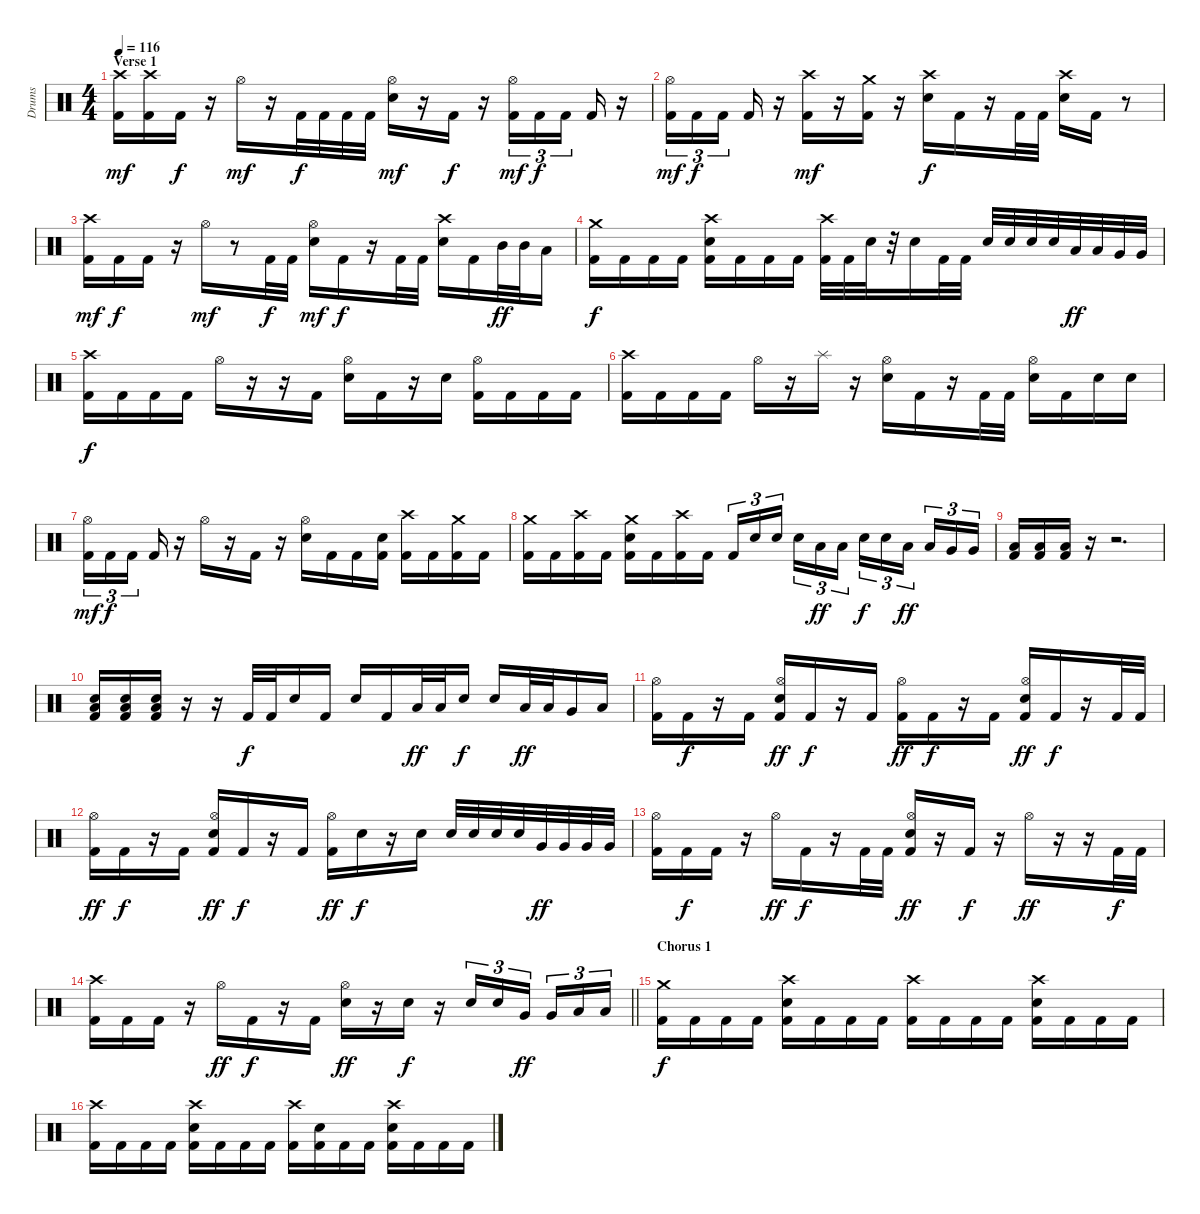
\track ("Drums" "Drums") {instrument percussion}
\staff {score}
\articulation defaults
\ts (4 4)
\section ("" "Verse 1")
\tempo 116
\clef neutral
\ks c
("Crash high (hit)" "Kick (hit) 2").16{dy mf} ("Crash high (hit)" "Kick (hit) 2").16 "Kick (hit) 2".16{dy f} r.16 "Hi-Hat (open)".16{dy mf} r.16 "Kick (hit) 2".32{dy f} "Kick (hit) 2".32 "Kick (hit) 2".32 "Kick (hit) 2".32 ("Hi-Hat (open)" "Snare (hit) 2").16{dy mf} r.16 "Kick (hit) 2".16{dy f} r.16 ("Hi-Hat (open)" "Kick (hit) 2").16{tu (3 2) dy mf} "Kick (hit) 2".16{tu (3 2) dy f} "Kick (hit) 2".16{tu (3 2)} "Kick (hit) 2".16 r.16 |
("Hi-Hat (open)" "Kick (hit) 2").16{tu (3 2) dy mf} "Kick (hit) 2".16{tu (3 2) dy f} "Kick (hit) 2".16{tu (3 2)} "Kick (hit) 2".16 r.16 ("Crash high (hit)" "Kick (hit) 2").16{dy mf} r.16 ("Crash medium (hit)" "Kick (hit) 2").16 r.16 ("Crash high (hit)" "Snare (hit) 2").16{dy f} "Kick (hit) 2".16 r.16 "Kick (hit) 2".32 "Kick (hit) 2".32 ("Crash high (hit)" "Snare (hit) 2").16 "Kick (hit) 2".16 r.8 |
("Crash high (hit)" "Kick (hit) 2").16{dy mf} "Kick (hit) 2".16{dy f} "Kick (hit) 2".16 r.16 "Hi-Hat (open)".16{dy mf} r.8 "Kick (hit) 2".32{dy f} "Kick (hit) 2".32 ("Hi-Hat (open)" "Snare (hit) 2").16{dy mf} "Kick (hit) 2".16{dy f} r.16 "Kick (hit) 2".32 "Kick (hit) 2".32 ("Crash high (hit)" "Snare (hit) 2").16 "Kick (hit) 2".16 "Mid Tom (hit)".32{dy ff} "Mid Tom (hit)".32 "Low Tom (hit)".16 |
("Crash medium (hit)" "Kick (hit) 2").16{dy f} "Kick (hit) 2".16 "Kick (hit) 2".16 "Kick (hit) 2".16 ("Crash high (hit)" "Snare (hit) 2" "Kick (hit) 2").16 "Kick (hit) 2".16 "Kick (hit) 2".16 "Kick (hit) 2".16 ("Crash high (hit)" "Kick (hit) 2").32 "Kick (hit) 2".32 "Snare (hit) 2".32 r.32 "Snare (hit) 2".16 "Kick (hit) 2".32 "Kick (hit) 2".32 "Snare (hit) 2".32 "Snare (hit) 2".32 "Snare (hit) 2".32 "Snare (hit) 2".32 "Low Tom (hit)".32{dy ff} "Low Tom (hit)".32 "Very Low Tom (hit)".32 "Very Low Tom (hit)".32 |
("Crash high (hit)" "Kick (hit) 2").16{dy f} "Kick (hit) 2".16 "Kick (hit) 2".16 "Kick (hit) 2".16 "Hi-Hat (open)".16 r.16 r.16 "Kick (hit) 2".16 ("Hi-Hat (open)" "Snare (hit) 2").16 "Kick (hit) 2".16 r.16 "Snare (hit) 2".16 ("Hi-Hat (open)" "Kick (hit) 2").16 "Kick (hit) 2".16 "Kick (hit) 2".16 "Kick (hit) 2".16 |
("Crash high (hit)" "Kick (hit) 2").16 "Kick (hit) 2".16 "Kick (hit) 2".16 "Kick (hit) 2".16 "Hi-Hat (open)".16 r.16 "Splash (hit)".16 r.16 ("Hi-Hat (open)" "Snare (hit) 2").16 "Kick (hit) 2".16 r.16 "Kick (hit) 2".32 "Kick (hit) 2".32 ("Hi-Hat (open)" "Snare (hit) 2").16 "Kick (hit) 2".16 "Snare (hit) 2".16 "Snare (hit) 2".16 |
("Hi-Hat (open)" "Kick (hit) 2").16{tu (3 2) dy mf} "Kick (hit) 2".16{tu (3 2) dy f} "Kick (hit) 2".16{tu (3 2)} "Kick (hit) 2".16 r.16 "Hi-Hat (open)".16 r.16 "Kick (hit) 2".16 r.16 ("Hi-Hat (open)" "Snare (hit) 2").16 "Kick (hit) 2".16 "Kick (hit) 2".16 ("Snare (hit) 2" "Kick (hit) 2").16 ("Crash high (hit)" "Kick (hit) 2").16 "Kick (hit) 2".16 ("Crash medium (hit)" "Kick (hit) 2").16 "Kick (hit) 2".16 |
("Crash medium (hit)" "Kick (hit) 2").16 "Kick (hit) 2".16 ("Crash high (hit)" "Kick (hit) 2").16 "Kick (hit) 2".16 ("Crash medium (hit)" "Snare (hit) 2" "Kick (hit) 2").16 "Kick (hit) 2".16 ("Crash high (hit)" "Kick (hit) 2").16 "Kick (hit) 2".16 "Kick (hit) 2".16{tu (3 2)} "Snare (hit) 2".16{tu (3 2)} "Snare (hit) 2".16{tu (3 2)} "Snare (hit) 2".16{tu (3 2)} "Low Tom (hit)".16{tu (3 2) dy ff} "Low Tom (hit)".16{tu (3 2)} "Snare (hit) 2".16{tu (3 2) dy f} "Snare (hit) 2".16{tu (3 2)} "Low Tom (hit)".16{tu (3 2) dy ff} "Low Tom (hit)".16{tu (3 2)} "Very Low Tom (hit)".16{tu (3 2)} "Very Low Tom (hit)".16{tu (3 2)} |
("Low Floor Tom (hit)" "Kick (hit) 2").16 ("Low Floor Tom (hit)" "Kick (hit) 2").16 ("Low Floor Tom (hit)" "Kick (hit) 2").16 r.16 r.2{d} |
("Low Floor Tom (hit)" "Snare (hit) 2" "Kick (hit) 2").16 ("Low Floor Tom (hit)" "Snare (hit) 2" "Kick (hit) 2").16 ("Low Floor Tom (hit)" "Snare (hit) 2" "Kick (hit) 2").16 r.16 r.16 "Kick (hit) 2".32{dy f} "Kick (hit) 2".32 "Snare (hit) 2".16 "Kick (hit) 2".16 "Snare (hit) 2".16 "Kick (hit) 2".16 "Low Tom (hit)".32{dy ff} "Low Tom (hit)".32 "Snare (hit) 2".16{dy f} "Snare (hit) 2".16 "Low Tom (hit)".32{dy ff} "Low Tom (hit)".32 "Very Low Tom (hit)".16 "Low Floor Tom (hit)".16 |
("Hi-Hat (open)" "Kick (hit) 2").16 "Kick (hit) 2".16{dy f} r.16 "Kick (hit) 2".16 ("Hi-Hat (open)" "Snare (hit) 2" "Kick (hit) 2").16{dy ff} "Kick (hit) 2".16{dy f} r.16 "Kick (hit) 2".16 ("Hi-Hat (open)" "Kick (hit) 2").16{dy ff} "Kick (hit) 2".16{dy f} r.16 "Kick (hit) 2".16 ("Hi-Hat (open)" "Snare (hit) 2" "Kick (hit) 2").16{dy ff} "Kick (hit) 2".16{dy f} r.16 "Kick (hit) 2".32 "Kick (hit) 2".32 |
("Hi-Hat (open)" "Kick (hit) 2").16{dy ff} "Kick (hit) 2".16{dy f} r.16 "Kick (hit) 2".16 ("Hi-Hat (open)" "Snare (hit) 2" "Kick (hit) 2").16{dy ff} "Kick (hit) 2".16{dy f} r.16 "Kick (hit) 2".16 ("Hi-Hat (open)" "Kick (hit) 2").16{dy ff} "Snare (hit) 2".16{dy f} r.16 "Snare (hit) 2".16 "Snare (hit) 2".32 "Snare (hit) 2".32 "Snare (hit) 2".32 "Snare (hit) 2".32 "Very Low Tom (hit)".32{dy ff} "Very Low Tom (hit)".32 "Very Low Tom (hit)".32 "Very Low Tom (hit)".32 |
("Hi-Hat (open)" "Kick (hit) 2").16 "Kick (hit) 2".16{dy f} "Kick (hit) 2".16 r.16 "Hi-Hat (open)".16{dy ff} "Kick (hit) 2".16{dy f} r.16 "Kick (hit) 2".32 "Kick (hit) 2".32 ("Hi-Hat (open)" "Snare (hit) 2" "Kick (hit) 2").16{dy ff} r.16 "Kick (hit) 2".16{dy f} r.16 "Hi-Hat (open)".16{dy ff} r.16 r.16 "Kick (hit) 2".32{dy f} "Kick (hit) 2".32 |
\barLineRight lightlight
("Crash high (hit)" "Kick (hit) 2").16 "Kick (hit) 2".16 "Kick (hit) 2".16 r.16 "Hi-Hat (open)".16{dy ff} "Kick (hit) 2".16{dy f} r.16 "Kick (hit) 2".16 ("Hi-Hat (open)" "Snare (hit) 2").16{dy ff} r.16 "Snare (hit) 2".16{dy f} r.16 "Snare (hit) 2".16{tu (3 2)} "Snare (hit) 2".16{tu (3 2)} "Very Low Tom (hit)".16{tu (3 2) dy ff} "Very Low Tom (hit)".16{tu (3 2)} "Low Floor Tom (hit)".16{tu (3 2)} "Low Floor Tom (hit)".16{tu (3 2)} |
\section ("" "Chorus 1")
("Crash medium (hit)" "Kick (hit) 2").16{dy f} "Kick (hit) 2".16 "Kick (hit) 2".16 "Kick (hit) 2".16 ("Crash high (hit)" "Snare (hit) 2" "Kick (hit) 2").16 "Kick (hit) 2".16 "Kick (hit) 2".16 "Kick (hit) 2".16 ("Crash high (hit)" "Kick (hit) 2").16 "Kick (hit) 2".16 "Kick (hit) 2".16 "Kick (hit) 2".16 ("Crash high (hit)" "Snare (hit) 2" "Kick (hit) 2").16 "Kick (hit) 2".16 "Kick (hit) 2".16 "Kick (hit) 2".16 |
("Crash high (hit)" "Kick (hit) 2").16 "Kick (hit) 2".16 "Kick (hit) 2".16 "Kick (hit) 2".16 ("Crash high (hit)" "Snare (hit) 2" "Kick (hit) 2").16 "Kick (hit) 2".16 "Kick (hit) 2".16 "Kick (hit) 2".16 ("Crash high (hit)" "Kick (hit) 2").16 ("Snare (hit) 2" "Kick (hit) 2").16 "Kick (hit) 2".16 "Kick (hit) 2".16 ("Crash high (hit)" "Snare (hit) 2" "Kick (hit) 2").16 "Kick (hit) 2".16 "Kick (hit) 2".16 "Kick (hit) 2".16
